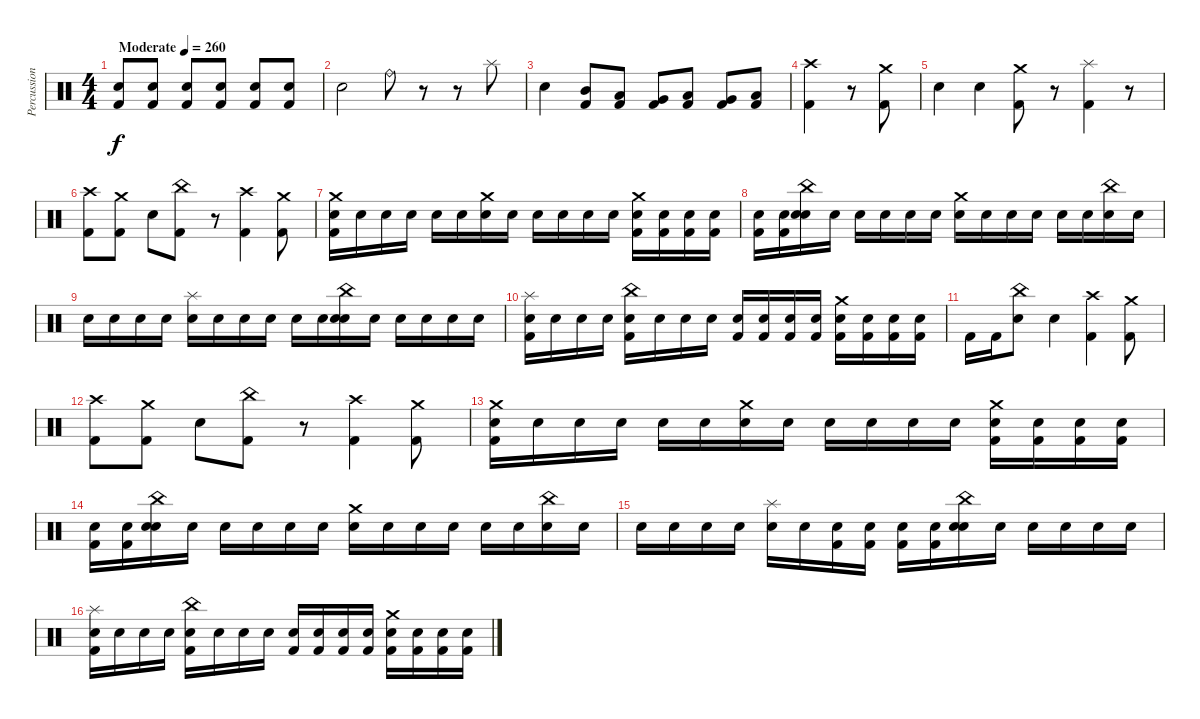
\track ("Percussion" "Percussion") {instrument percussion}
\staff {score}
\articulation defaults
\ts (4 4)
\tempo (260 "Moderate")
\clef neutral
\ks c
("Snare (hit) 2" "Kick (hit) 2").8{dy f} ("Snare (hit) 2" "Kick (hit) 2").8 ("Snare (hit) 2" "Kick (hit) 2").8 ("Snare (hit) 2" "Kick (hit) 2").8 ("Snare (hit) 2" "Kick (hit) 2").8 ("Snare (hit) 2" "Kick (hit) 2").8 |
"Snare (hit)".2 "Ride (bell)".8 r.8 r.8 "Splash (hit)".8 |
"Snare (hit)".4 ("Kick (hit) 2" "Mid Tom (hit)").8 ("Kick (hit) 2" "Low Tom (hit)").8 ("Kick (hit) 2" "Very Low Tom (hit)").8 ("Kick (hit) 2" "Low Tom (hit)").8 ("Kick (hit) 2" "Very Low Tom (hit)").8 ("Kick (hit) 2" "Low Floor Tom (hit)").8 |
("Crash high (hit)" "Kick (hit) 2").4 r.8 ("Kick (hit) 2" "Crash medium (hit)").8 |
"Snare (hit)".4 "Snare (hit)".4 ("Crash medium (hit)" "Kick (hit) 2").8 r.8 ("Splash (hit)" "Kick (hit) 2").4 r.8 |
("Crash high (hit)" "Kick (hit) 2").8 ("Crash medium (hit)" "Kick (hit) 2").8 "Snare (hit) 2".8 ("China (hit)" "Kick (hit) 2").8 r.8 ("Crash high (hit)" "Kick (hit) 2").4 ("Kick (hit) 2" "Crash medium (hit)").8 |
("Crash medium (hit)" "Kick (hit) 2" "Snare (hit)").16 "Snare (hit)".16 "Snare (hit)".16 "Snare (hit)".16 "Snare (hit)".16 "Snare (hit)".16 ("Crash medium (hit)" "Snare (hit)").16 "Snare (hit)".16 "Snare (hit)".16 "Snare (hit)".16 "Snare (hit)".16 "Snare (hit)".16 ("Crash medium (hit)" "Kick (hit) 2" "Snare (hit)").16 ("Kick (hit) 2" "Snare (hit)").16 ("Kick (hit) 2" "Snare (hit)").16 ("Kick (hit) 2" "Snare (hit)").16 |
("Kick (hit) 2" "Snare (hit)").16 ("Kick (hit) 2" "Snare (hit)").16 ("Snare (hit) 2" "China (hit)" "Snare (hit)").16 "Snare (hit)".16 "Snare (hit)".16 "Snare (hit)".16 "Snare (hit)".16 "Snare (hit)".16 ("Crash medium (hit)" "Snare (hit)").16 "Snare (hit)".16 "Snare (hit)".16 "Snare (hit)".16 "Snare (hit)".16 "Snare (hit)".16 ("China (hit)" "Snare (hit)").16 "Snare (hit)".16 |
"Snare (hit)".16 "Snare (hit)".16 "Snare (hit)".16 "Snare (hit)".16 ("Splash (hit)" "Snare (hit)").16 "Snare (hit)".16 "Snare (hit)".16 "Snare (hit)".16 "Snare (hit)".16 "Snare (hit)".16 ("China (hit)" "Snare (hit) 2" "Snare (hit)").16 "Snare (hit)".16 "Snare (hit)".16 "Snare (hit)".16 "Snare (hit)".16 "Snare (hit)".16 |
("Splash (hit)" "Kick (hit) 2" "Snare (hit)").16 "Snare (hit)".16 "Snare (hit)".16 "Snare (hit)".16 ("China (hit)" "Kick (hit) 2" "Snare (hit)").16 "Snare (hit)".16 "Snare (hit)".16 "Snare (hit)".16 ("Kick (hit) 2" "Snare (hit)").16 ("Kick (hit) 2" "Snare (hit)").16 ("Kick (hit) 2" "Snare (hit)").16 ("Kick (hit) 2" "Snare (hit)").16 ("Crash medium (hit)" "Kick (hit) 2" "Snare (hit)").16 ("Kick (hit) 2" "Snare (hit)").16 ("Kick (hit) 2" "Snare (hit)").16 ("Kick (hit) 2" "Snare (hit)").16 |
"Kick (hit) 2".16 "Kick (hit) 2".16 ("China (hit)" "Snare (hit) 2").8 "Snare (hit)".4 ("Crash high (hit)" "Kick (hit) 2").4 ("Crash medium (hit)" "Kick (hit) 2").8 |
("Crash high (hit)" "Kick (hit) 2").8 ("Crash medium (hit)" "Kick (hit) 2").8 "Snare (hit) 2".8 ("China (hit)" "Kick (hit) 2").8 r.8 ("Crash high (hit)" "Kick (hit) 2").4 ("Kick (hit) 2" "Crash medium (hit)").8 |
("Crash medium (hit)" "Kick (hit) 2" "Snare (hit)").16 "Snare (hit)".16 "Snare (hit)".16 "Snare (hit)".16 "Snare (hit)".16 "Snare (hit)".16 ("Crash medium (hit)" "Snare (hit)").16 "Snare (hit)".16 "Snare (hit)".16 "Snare (hit)".16 "Snare (hit)".16 "Snare (hit)".16 ("Crash medium (hit)" "Kick (hit) 2" "Snare (hit)").16 ("Kick (hit) 2" "Snare (hit)").16 ("Kick (hit) 2" "Snare (hit)").16 ("Kick (hit) 2" "Snare (hit)").16 |
("Kick (hit) 2" "Snare (hit)").16 ("Kick (hit) 2" "Snare (hit)").16 ("Snare (hit) 2" "China (hit)" "Snare (hit)").16 "Snare (hit)".16 "Snare (hit)".16 "Snare (hit)".16 "Snare (hit)".16 "Snare (hit)".16 ("Crash medium (hit)" "Snare (hit)").16 "Snare (hit)".16 "Snare (hit)".16 "Snare (hit)".16 "Snare (hit)".16 "Snare (hit)".16 ("China (hit)" "Snare (hit)").16 "Snare (hit)".16 |
"Snare (hit)".16 "Snare (hit)".16 "Snare (hit)".16 "Snare (hit)".16 ("Splash (hit)" "Snare (hit)").16 "Snare (hit)".16 ("Kick (hit) 2" "Snare (hit)").16 ("Kick (hit) 2" "Snare (hit)").16 ("Kick (hit) 2" "Snare (hit)").16 ("Kick (hit) 2" "Snare (hit)").16 ("China (hit)" "Snare (hit) 2" "Snare (hit)").16 "Snare (hit)".16 "Snare (hit)".16 "Snare (hit)".16 "Snare (hit)".16 "Snare (hit)".16 |
("Splash (hit)" "Kick (hit) 2" "Snare (hit)").16 "Snare (hit)".16 "Snare (hit)".16 "Snare (hit)".16 ("China (hit)" "Kick (hit) 2" "Snare (hit)").16 "Snare (hit)".16 "Snare (hit)".16 "Snare (hit)".16 ("Kick (hit) 2" "Snare (hit)").16 ("Kick (hit) 2" "Snare (hit)").16 ("Kick (hit) 2" "Snare (hit)").16 ("Kick (hit) 2" "Snare (hit)").16 ("Crash medium (hit)" "Kick (hit) 2" "Snare (hit)").16 ("Kick (hit) 2" "Snare (hit)").16 ("Kick (hit) 2" "Snare (hit)").16 ("Kick (hit) 2" "Snare (hit)").16
